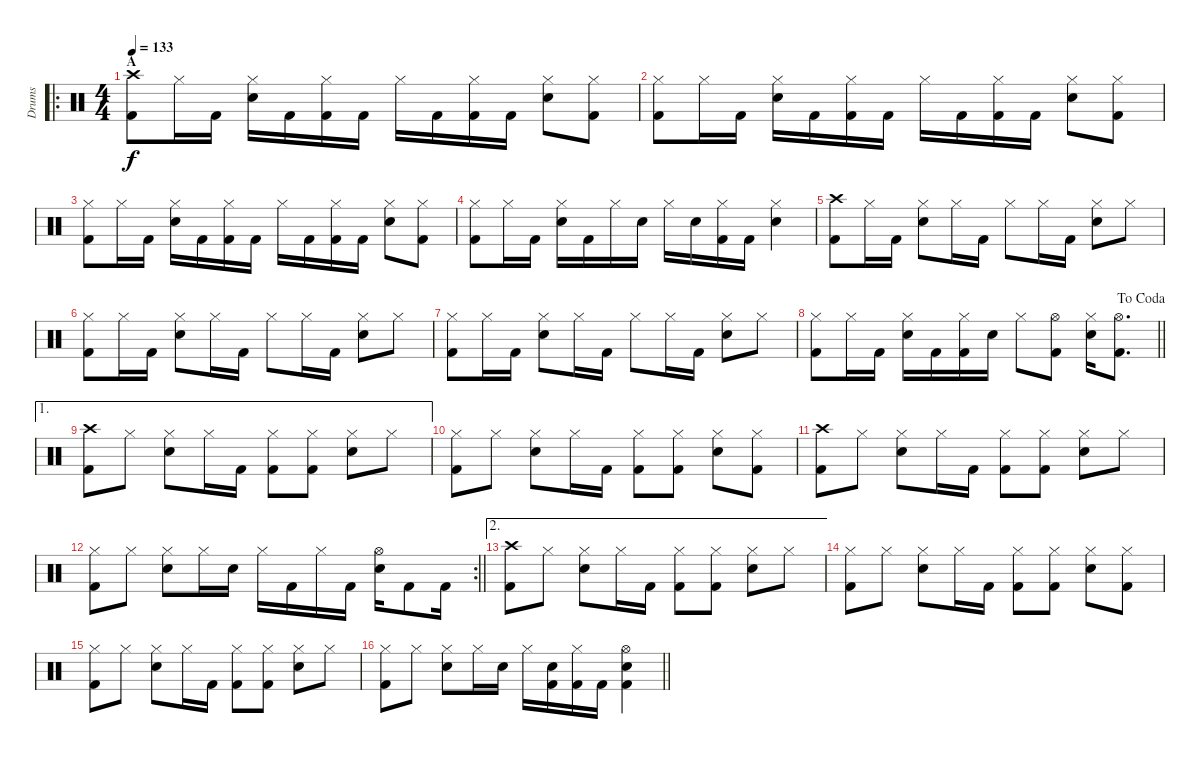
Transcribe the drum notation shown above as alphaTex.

\track ("Drums" "Drums") {instrument percussion}
\staff {score}
\articulation defaults
\ro
\ts (4 4)
\section ("" "A")
\tempo 133
\clef neutral
\ks c
("Crash high (hit)" "Kick (hit) 2").8{dy f} "Hi-Hat (closed)".16 "Kick (hit) 2".16 ("Hi-Hat (closed)" "Electric Snare (hit)").16 "Kick (hit) 2".16 ("Hi-Hat (closed)" "Kick (hit) 2").16 "Kick (hit) 2".16 "Hi-Hat (closed)".16 "Kick (hit) 2".16 ("Hi-Hat (closed)" "Kick (hit) 2").16 "Kick (hit) 2".16 ("Hi-Hat (closed)" "Electric Snare (hit)").8 ("Hi-Hat (closed)" "Kick (hit) 2").8 |
("Hi-Hat (closed)" "Kick (hit) 2").8 "Hi-Hat (closed)".16 "Kick (hit) 2".16 ("Hi-Hat (closed)" "Electric Snare (hit)").16 "Kick (hit) 2".16 ("Hi-Hat (closed)" "Kick (hit) 2").16 "Kick (hit) 2".16 "Hi-Hat (closed)".16 "Kick (hit) 2".16 ("Hi-Hat (closed)" "Kick (hit) 2").16 "Kick (hit) 2".16 ("Hi-Hat (closed)" "Electric Snare (hit)").8 ("Hi-Hat (closed)" "Kick (hit) 2").8 |
("Hi-Hat (closed)" "Kick (hit) 2").8 "Hi-Hat (closed)".16 "Kick (hit) 2".16 ("Hi-Hat (closed)" "Electric Snare (hit)").16 "Kick (hit) 2".16 ("Hi-Hat (closed)" "Kick (hit) 2").16 "Kick (hit) 2".16 "Hi-Hat (closed)".16 "Kick (hit) 2".16 ("Hi-Hat (closed)" "Kick (hit) 2").16 "Kick (hit) 2".16 ("Hi-Hat (closed)" "Electric Snare (hit)").8 ("Hi-Hat (closed)" "Kick (hit) 2").8 |
("Hi-Hat (closed)" "Kick (hit) 2").8 "Hi-Hat (closed)".16 "Kick (hit) 2".16 ("Hi-Hat (closed)" "Electric Snare (hit)").16 "Kick (hit) 2".16 "Hi-Hat (closed)".16 "Electric Snare (hit)".16 "Hi-Hat (closed)".16 "Electric Snare (hit)".16 ("Hi-Hat (closed)" "Kick (hit) 2").16 "Kick (hit) 2".16 ("Hi-Hat (closed)" "Electric Snare (hit)").4 |
("Crash high (hit)" "Kick (hit) 2").8 "Hi-Hat (closed)".16 "Kick (hit) 2".16 ("Hi-Hat (closed)" "Electric Snare (hit)").8 "Hi-Hat (closed)".16 "Kick (hit) 2".16 "Hi-Hat (closed)".8 "Hi-Hat (closed)".16 "Kick (hit) 2".16 ("Hi-Hat (closed)" "Electric Snare (hit)").8 "Hi-Hat (closed)".8 |
("Hi-Hat (closed)" "Kick (hit) 2").8 "Hi-Hat (closed)".16 "Kick (hit) 2".16 ("Hi-Hat (closed)" "Electric Snare (hit)").8 "Hi-Hat (closed)".16 "Kick (hit) 2".16 "Hi-Hat (closed)".8 "Hi-Hat (closed)".16 "Kick (hit) 2".16 ("Hi-Hat (closed)" "Electric Snare (hit)").8 "Hi-Hat (closed)".8 |
("Hi-Hat (closed)" "Kick (hit) 2").8 "Hi-Hat (closed)".16 "Kick (hit) 2".16 ("Hi-Hat (closed)" "Electric Snare (hit)").8 "Hi-Hat (closed)".16 "Kick (hit) 2".16 "Hi-Hat (closed)".8 "Hi-Hat (closed)".16 "Kick (hit) 2".16 ("Hi-Hat (closed)" "Electric Snare (hit)").8 "Hi-Hat (closed)".8 |
\jump dacoda
\barLineRight lightlight
("Hi-Hat (closed)" "Kick (hit) 2").8 "Hi-Hat (closed)".16 "Kick (hit) 2".16 ("Hi-Hat (closed)" "Electric Snare (hit)").16 "Kick (hit) 2".16 ("Hi-Hat (closed)" "Kick (hit) 2").16 "Electric Snare (hit)".16 "Hi-Hat (closed)".8 ("Hi-Hat (open)" "Kick (hit) 2").8 ("Hi-Hat (closed)" "Electric Snare (hit)").16 ("Hi-Hat (open)" "Kick (hit) 2").8{d} |
\ae 1
("Crash high (hit)" "Kick (hit) 2").8 "Hi-Hat (closed)".8 ("Hi-Hat (closed)" "Electric Snare (hit)").8 "Hi-Hat (closed)".16 "Kick (hit) 2".16 ("Hi-Hat (closed)" "Kick (hit) 2").8 ("Hi-Hat (closed)" "Kick (hit) 2").8 ("Hi-Hat (closed)" "Electric Snare (hit)").8 "Hi-Hat (closed)".8 |
("Hi-Hat (closed)" "Kick (hit) 2").8 "Hi-Hat (closed)".8 ("Hi-Hat (closed)" "Electric Snare (hit)").8 "Hi-Hat (closed)".16 "Kick (hit) 2".16 ("Hi-Hat (closed)" "Kick (hit) 2").8 ("Hi-Hat (closed)" "Kick (hit) 2").8 ("Hi-Hat (closed)" "Electric Snare (hit)").8 ("Hi-Hat (closed)" "Kick (hit) 2").8 |
("Crash high (hit)" "Kick (hit) 2").8 "Hi-Hat (closed)".8 ("Hi-Hat (closed)" "Electric Snare (hit)").8 "Hi-Hat (closed)".16 "Kick (hit) 2".16 ("Hi-Hat (closed)" "Kick (hit) 2").8 ("Hi-Hat (closed)" "Kick (hit) 2").8 ("Hi-Hat (closed)" "Electric Snare (hit)").8 "Hi-Hat (closed)".8 |
\rc 2
\barLineRight lightlight
("Hi-Hat (closed)" "Kick (hit) 2").8 "Hi-Hat (closed)".8 ("Hi-Hat (closed)" "Electric Snare (hit)").8 "Hi-Hat (closed)".16 "Electric Snare (hit)".16 "Hi-Hat (closed)".16 "Kick (hit) 2".16 "Hi-Hat (closed)".16 "Kick (hit) 2".16 ("Hi-Hat (open)" "Electric Snare (hit)").16 "Kick (hit) 2".8 "Kick (hit) 2".16 |
\ae 2
("Crash high (hit)" "Kick (hit) 2").8 "Hi-Hat (closed)".8 ("Hi-Hat (closed)" "Electric Snare (hit)").8 "Hi-Hat (closed)".16 "Kick (hit) 2".16 ("Hi-Hat (closed)" "Kick (hit) 2").8 ("Hi-Hat (closed)" "Kick (hit) 2").8 ("Hi-Hat (closed)" "Electric Snare (hit)").8 "Hi-Hat (closed)".8 |
("Hi-Hat (closed)" "Kick (hit) 2").8 "Hi-Hat (closed)".8 ("Hi-Hat (closed)" "Electric Snare (hit)").8 "Hi-Hat (closed)".16 "Kick (hit) 2".16 ("Hi-Hat (closed)" "Kick (hit) 2").8 ("Hi-Hat (closed)" "Kick (hit) 2").8 ("Hi-Hat (closed)" "Electric Snare (hit)").8 ("Hi-Hat (closed)" "Kick (hit) 2").8 |
("Hi-Hat (closed)" "Kick (hit) 2").8 "Hi-Hat (closed)".8 ("Hi-Hat (closed)" "Electric Snare (hit)").8 "Hi-Hat (closed)".16 "Kick (hit) 2".16 ("Hi-Hat (closed)" "Kick (hit) 2").8 ("Hi-Hat (closed)" "Kick (hit) 2").8 ("Hi-Hat (closed)" "Electric Snare (hit)").8 "Hi-Hat (closed)".8 |
\barLineRight lightlight
("Hi-Hat (closed)" "Kick (hit) 2").8 "Hi-Hat (closed)".8 ("Hi-Hat (closed)" "Electric Snare (hit)").8 "Hi-Hat (closed)".16 "Electric Snare (hit)".16 "Hi-Hat (closed)".16 ("Electric Snare (hit)" "Kick (hit) 2").16 ("Hi-Hat (closed)" "Kick (hit) 2").16 "Kick (hit) 2".16 ("Hi-Hat (open)" "Electric Snare (hit)" "Kick (hit) 2").4
